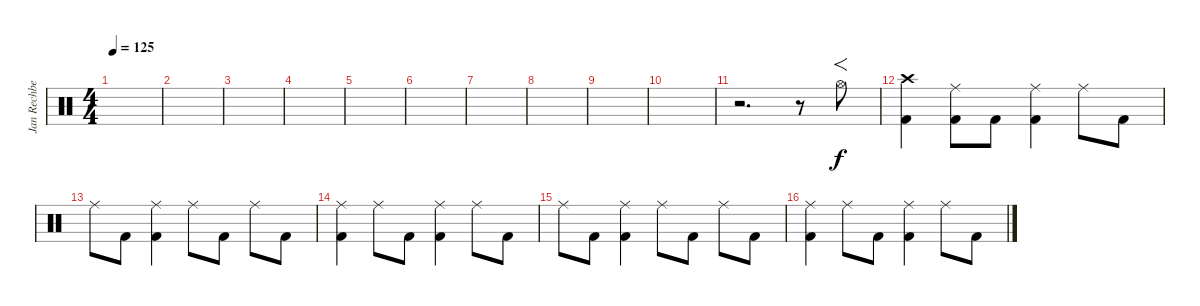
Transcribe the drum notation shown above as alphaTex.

\track ("Jan Rechberger" "Jan Rechbe") {instrument percussion}
\staff {score}
\articulation defaults
\ts (4 4)
\tempo 125
\clef neutral
\ks c
|
|
|
|
|
|
|
|
|
|
r.2{d} r.8 "Hi-Hat (open)".8{f} |
("Crash high (hit)" "Kick (hit) 2").4 ("Ride (middle)" "Kick (hit) 2").8 "Kick (hit) 2".8 ("Ride (middle)" "Kick (hit) 2").4 "Ride (middle)".8 "Kick (hit) 2".8 |
"Ride (middle)".8 "Kick (hit) 2".8 ("Ride (middle)" "Kick (hit) 2").4 "Ride (middle)".8 "Kick (hit) 2".8 "Ride (middle)".8 "Kick (hit) 2".8 |
("Ride (middle)" "Kick (hit) 2").4 "Ride (middle)".8 "Kick (hit) 2".8 ("Ride (middle)" "Kick (hit) 2").4 "Ride (middle)".8 "Kick (hit) 2".8 |
"Ride (middle)".8 "Kick (hit) 2".8 ("Ride (middle)" "Kick (hit) 2").4 "Ride (middle)".8 "Kick (hit) 2".8 "Ride (middle)".8 "Kick (hit) 2".8 |
("Ride (middle)" "Kick (hit) 2").4 "Ride (middle)".8 "Kick (hit) 2".8 ("Ride (middle)" "Kick (hit) 2").4 "Ride (middle)".8 "Kick (hit) 2".8
